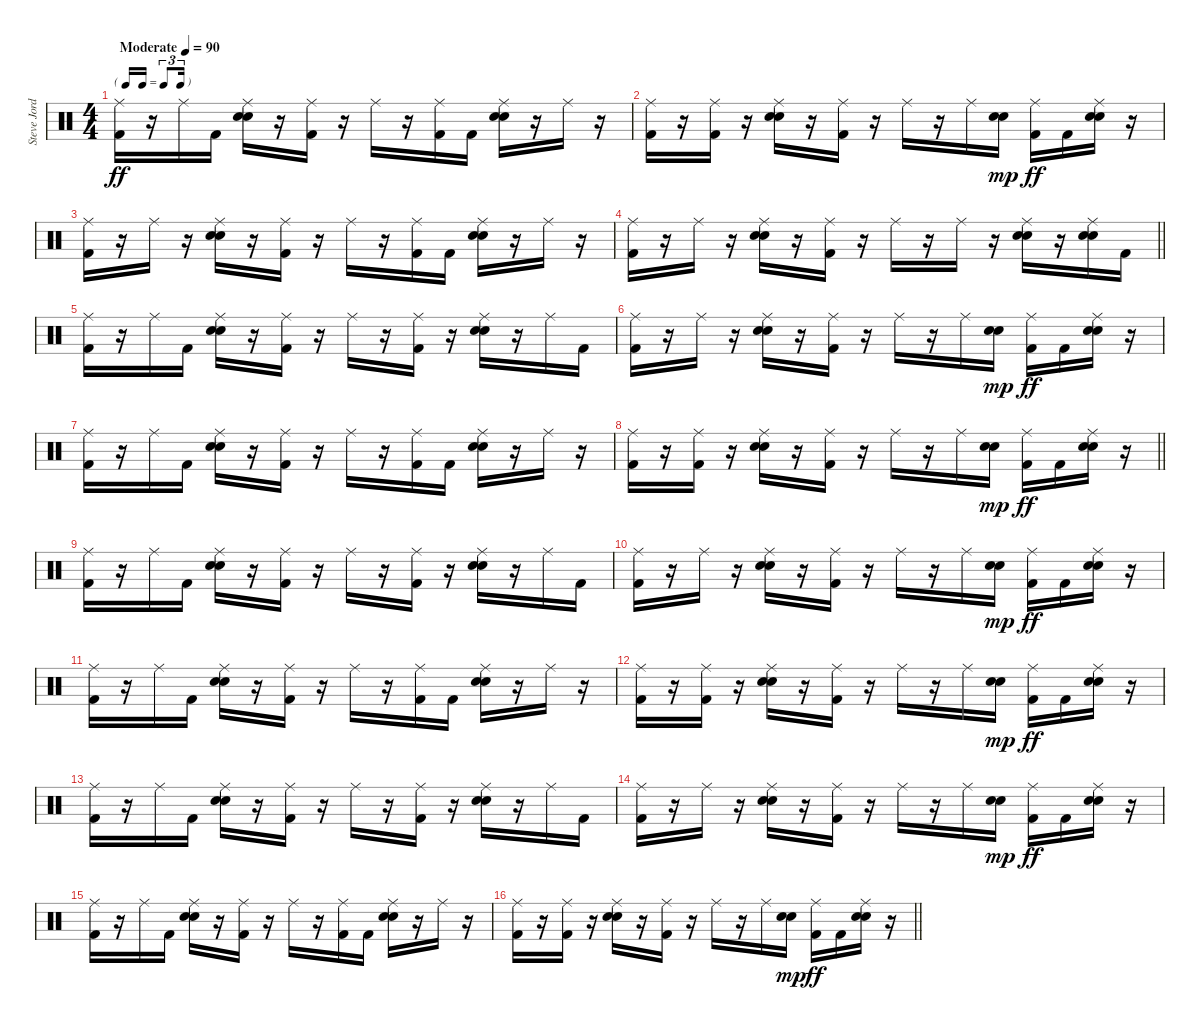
\track ("Steve Jordan" "Steve Jord") {instrument percussion}
\staff {score}
\articulation defaults
\ts (4 4)
\tf triplet16th
\tempo (90 "Moderate")
\clef neutral
\ks c
("Ride (middle)" "Kick (hit) 2").16{dy ff} r.16 "Ride (middle)".16 "Kick (hit) 2".16 ("Ride (middle)" "Electric Snare (hit)" "Snare (hit) 2").16 r.16 ("Ride (middle)" "Kick (hit) 2").16 r.16 "Ride (middle)".16 r.16 ("Ride (middle)" "Kick (hit) 2").16 "Kick (hit) 2".16 ("Ride (middle)" "Electric Snare (hit)" "Snare (hit) 2").16 r.16 "Ride (middle)".16 r.16 |
("Ride (middle)" "Kick (hit) 2").16 r.16 ("Ride (middle)" "Kick (hit) 2").16 r.16 ("Ride (middle)" "Electric Snare (hit)" "Snare (hit) 2").16 r.16 ("Ride (middle)" "Kick (hit) 2").16 r.16 "Ride (middle)".16 r.16 "Ride (middle)".16 ("Electric Snare (hit)" "Snare (hit) 2").16{dy mp} ("Ride (middle)" "Kick (hit) 2").16{dy ff} "Kick (hit) 2".16 ("Ride (middle)" "Electric Snare (hit)" "Snare (hit) 2").16 r.16 |
("Ride (middle)" "Kick (hit) 2").16 r.16 "Ride (middle)".16 r.16 ("Ride (middle)" "Electric Snare (hit)" "Snare (hit) 2").16 r.16 ("Ride (middle)" "Kick (hit) 2").16 r.16 "Ride (middle)".16 r.16 ("Ride (middle)" "Kick (hit) 2").16 "Kick (hit) 2".16 ("Ride (middle)" "Electric Snare (hit)" "Snare (hit) 2").16 r.16 "Ride (middle)".16 r.16 |
\barLineRight lightlight
("Ride (middle)" "Kick (hit) 2").16 r.16 "Ride (middle)".16 r.16 ("Ride (middle)" "Electric Snare (hit)" "Snare (hit) 2").16 r.16 ("Ride (middle)" "Kick (hit) 2").16 r.16 "Ride (middle)".16 r.16 "Ride (middle)".16 r.16 ("Ride (middle)" "Electric Snare (hit)" "Snare (hit) 2").16 r.16 ("Ride (middle)" "Electric Snare (hit)" "Snare (hit) 2").16 "Kick (hit) 2".16 |
("Ride (middle)" "Kick (hit) 2").16 r.16 "Ride (middle)".16 "Kick (hit) 2".16 ("Ride (middle)" "Electric Snare (hit)" "Snare (hit) 2").16 r.16 ("Ride (middle)" "Kick (hit) 2").16 r.16 "Ride (middle)".16 r.16 ("Ride (middle)" "Kick (hit) 2").16 r.16 ("Ride (middle)" "Electric Snare (hit)" "Snare (hit) 2").16 r.16 "Ride (middle)".16 "Kick (hit) 2".16 |
("Ride (middle)" "Kick (hit) 2").16 r.16 "Ride (middle)".16 r.16 ("Ride (middle)" "Electric Snare (hit)" "Snare (hit) 2").16 r.16 ("Ride (middle)" "Kick (hit) 2").16 r.16 "Ride (middle)".16 r.16 "Ride (middle)".16 ("Electric Snare (hit)" "Snare (hit) 2").16{dy mp} ("Ride (middle)" "Kick (hit) 2").16{dy ff} "Kick (hit) 2".16 ("Ride (middle)" "Electric Snare (hit)" "Snare (hit) 2").16 r.16 |
("Ride (middle)" "Kick (hit) 2").16 r.16 "Ride (middle)".16 "Kick (hit) 2".16 ("Ride (middle)" "Electric Snare (hit)" "Snare (hit) 2").16 r.16 ("Ride (middle)" "Kick (hit) 2").16 r.16 "Ride (middle)".16 r.16 ("Ride (middle)" "Kick (hit) 2").16 "Kick (hit) 2".16 ("Ride (middle)" "Electric Snare (hit)" "Snare (hit) 2").16 r.16 "Ride (middle)".16 r.16 |
\barLineRight lightlight
("Ride (middle)" "Kick (hit) 2").16 r.16 ("Ride (middle)" "Kick (hit) 2").16 r.16 ("Ride (middle)" "Electric Snare (hit)" "Snare (hit) 2").16 r.16 ("Ride (middle)" "Kick (hit) 2").16 r.16 "Ride (middle)".16 r.16 "Ride (middle)".16 ("Electric Snare (hit)" "Snare (hit) 2").16{dy mp} ("Ride (middle)" "Kick (hit) 2").16{dy ff} "Kick (hit) 2".16 ("Ride (middle)" "Electric Snare (hit)" "Snare (hit) 2").16 r.16 |
("Ride (middle)" "Kick (hit) 2").16 r.16 "Ride (middle)".16 "Kick (hit) 2".16 ("Ride (middle)" "Electric Snare (hit)" "Snare (hit) 2").16 r.16 ("Ride (middle)" "Kick (hit) 2").16 r.16 "Ride (middle)".16 r.16 ("Ride (middle)" "Kick (hit) 2").16 r.16 ("Ride (middle)" "Electric Snare (hit)" "Snare (hit) 2").16 r.16 "Ride (middle)".16 "Kick (hit) 2".16 |
("Ride (middle)" "Kick (hit) 2").16 r.16 "Ride (middle)".16 r.16 ("Ride (middle)" "Electric Snare (hit)" "Snare (hit) 2").16 r.16 ("Ride (middle)" "Kick (hit) 2").16 r.16 "Ride (middle)".16 r.16 "Ride (middle)".16 ("Electric Snare (hit)" "Snare (hit) 2").16{dy mp} ("Ride (middle)" "Kick (hit) 2").16{dy ff} "Kick (hit) 2".16 ("Ride (middle)" "Electric Snare (hit)" "Snare (hit) 2").16 r.16 |
("Ride (middle)" "Kick (hit) 2").16 r.16 "Ride (middle)".16 "Kick (hit) 2".16 ("Ride (middle)" "Electric Snare (hit)" "Snare (hit) 2").16 r.16 ("Ride (middle)" "Kick (hit) 2").16 r.16 "Ride (middle)".16 r.16 ("Ride (middle)" "Kick (hit) 2").16 "Kick (hit) 2".16 ("Ride (middle)" "Electric Snare (hit)" "Snare (hit) 2").16 r.16 "Ride (middle)".16 r.16 |
("Ride (middle)" "Kick (hit) 2").16 r.16 ("Ride (middle)" "Kick (hit) 2").16 r.16 ("Ride (middle)" "Electric Snare (hit)" "Snare (hit) 2").16 r.16 ("Ride (middle)" "Kick (hit) 2").16 r.16 "Ride (middle)".16 r.16 "Ride (middle)".16 ("Electric Snare (hit)" "Snare (hit) 2").16{dy mp} ("Ride (middle)" "Kick (hit) 2").16{dy ff} "Kick (hit) 2".16 ("Ride (middle)" "Electric Snare (hit)" "Snare (hit) 2").16 r.16 |
("Ride (middle)" "Kick (hit) 2").16 r.16 "Ride (middle)".16 "Kick (hit) 2".16 ("Ride (middle)" "Electric Snare (hit)" "Snare (hit) 2").16 r.16 ("Ride (middle)" "Kick (hit) 2").16 r.16 "Ride (middle)".16 r.16 ("Ride (middle)" "Kick (hit) 2").16 r.16 ("Ride (middle)" "Electric Snare (hit)" "Snare (hit) 2").16 r.16 "Ride (middle)".16 "Kick (hit) 2".16 |
("Ride (middle)" "Kick (hit) 2").16 r.16 "Ride (middle)".16 r.16 ("Ride (middle)" "Electric Snare (hit)" "Snare (hit) 2").16 r.16 ("Ride (middle)" "Kick (hit) 2").16 r.16 "Ride (middle)".16 r.16 "Ride (middle)".16 ("Electric Snare (hit)" "Snare (hit) 2").16{dy mp} ("Ride (middle)" "Kick (hit) 2").16{dy ff} "Kick (hit) 2".16 ("Ride (middle)" "Electric Snare (hit)" "Snare (hit) 2").16 r.16 |
("Ride (middle)" "Kick (hit) 2").16 r.16 "Ride (middle)".16 "Kick (hit) 2".16 ("Ride (middle)" "Electric Snare (hit)" "Snare (hit) 2").16 r.16 ("Ride (middle)" "Kick (hit) 2").16 r.16 "Ride (middle)".16 r.16 ("Ride (middle)" "Kick (hit) 2").16 "Kick (hit) 2".16 ("Ride (middle)" "Electric Snare (hit)" "Snare (hit) 2").16 r.16 "Ride (middle)".16 r.16 |
\barLineRight lightlight
("Ride (middle)" "Kick (hit) 2").16 r.16 ("Ride (middle)" "Kick (hit) 2").16 r.16 ("Ride (middle)" "Electric Snare (hit)" "Snare (hit) 2").16 r.16 ("Ride (middle)" "Kick (hit) 2").16 r.16 "Ride (middle)".16 r.16 "Ride (middle)".16 ("Electric Snare (hit)" "Snare (hit) 2").16{dy mp} ("Ride (middle)" "Kick (hit) 2").16{dy ff} "Kick (hit) 2".16 ("Ride (middle)" "Electric Snare (hit)" "Snare (hit) 2").16 r.16
